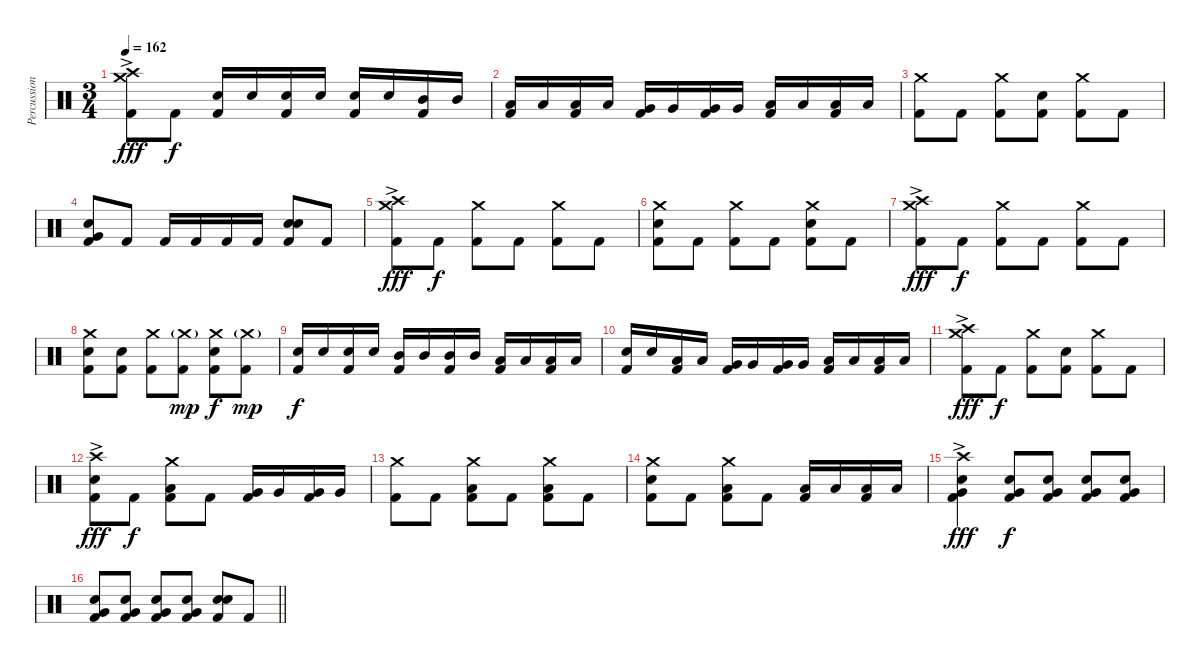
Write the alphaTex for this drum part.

\track ("Percussion" "Percussion") {instrument percussion}
\staff {score}
\articulation defaults
\ts (3 4)
\tempo 162
\clef neutral
\ks c
("Crash high (hit)"{ac} "Crash medium (hit)" "Kick (hit) 2").8{dy fff} "Kick (hit) 2".8{dy f} ("Electric Snare (hit)" "Kick (hit) 2").16 "Electric Snare (hit)".16 ("Electric Snare (hit)" "Kick (hit) 2").16 "Electric Snare (hit)".16 ("Electric Snare (hit)" "Kick (hit) 2").16 "Electric Snare (hit)".16 ("Mid Tom (hit)" "Kick (hit) 2").16 "Mid Tom (hit)".16 |
("Low Tom (hit)" "Kick (hit) 2").16 "Low Tom (hit)".16 ("Low Tom (hit)" "Kick (hit) 2").16 "Low Tom (hit)".16 ("Very Low Tom (hit)" "Kick (hit) 2").16 "Very Low Tom (hit)".16 ("Very Low Tom (hit)" "Kick (hit) 2").16 "Very Low Tom (hit)".16 ("Low Floor Tom (hit)" "Kick (hit) 2").16 "Low Floor Tom (hit)".16 ("Low Floor Tom (hit)" "Kick (hit) 2").16 "Low Floor Tom (hit)".16 |
("Crash medium (hit)" "Kick (hit) 2").8 "Kick (hit) 2".8 ("Crash medium (hit)" "Kick (hit) 2").8 ("Electric Snare (hit)" "Kick (hit) 2").8 ("Crash medium (hit)" "Kick (hit) 2").8 "Kick (hit) 2".8 |
("Electric Snare (hit)" "Very Low Tom (hit)" "Kick (hit) 2").8 "Kick (hit) 2".8 "Kick (hit) 2".16 "Kick (hit) 2".16 "Kick (hit) 2".16 "Kick (hit) 2".16 ("Electric Snare (hit)" "Electric Snare (hit)" "Kick (hit) 2").8{bd 60} "Kick (hit) 2".8 |
("Crash high (hit)"{ac} "Crash medium (hit)" "Kick (hit) 2").8{dy fff} "Kick (hit) 2".8{dy f} ("Crash medium (hit)" "Kick (hit) 2").8 "Kick (hit) 2".8 ("Crash medium (hit)" "Kick (hit) 2").8 "Kick (hit) 2".8 |
("Crash medium (hit)" "Electric Snare (hit)" "Kick (hit) 2").8 "Kick (hit) 2".8 ("Crash medium (hit)" "Kick (hit) 2").8 "Kick (hit) 2".8 ("Crash medium (hit)" "Electric Snare (hit)" "Kick (hit) 2").8 "Kick (hit) 2".8 |
("Crash high (hit)"{ac} "Crash medium (hit)" "Kick (hit) 2").8{dy fff} "Kick (hit) 2".8{dy f} ("Crash medium (hit)" "Kick (hit) 2").8 "Kick (hit) 2".8 ("Crash medium (hit)" "Kick (hit) 2").8 "Kick (hit) 2".8 |
("Crash medium (hit)" "Electric Snare (hit)" "Kick (hit) 2").8 ("Electric Snare (hit)" "Kick (hit) 2").8 ("Crash medium (hit)" "Kick (hit) 2").8 ("Crash medium (hit)"{g} "Kick (hit) 2").8{dy mp} ("Crash medium (hit)" "Electric Snare (hit)" "Kick (hit) 2").8{dy f} ("Crash medium (hit)"{g} "Kick (hit) 2").8{dy mp} |
("Electric Snare (hit)" "Kick (hit) 2").16{dy f} "Electric Snare (hit)".16 ("Electric Snare (hit)" "Kick (hit) 2").16 "Electric Snare (hit)".16 ("Mid Tom (hit)" "Kick (hit) 2").16 "Mid Tom (hit)".16 ("Mid Tom (hit)" "Kick (hit) 2").16 "Mid Tom (hit)".16 ("Low Tom (hit)" "Kick (hit) 2").16 "Low Tom (hit)".16 ("Low Tom (hit)" "Kick (hit) 2").16 "Low Tom (hit)".16 |
("Electric Snare (hit)" "Kick (hit) 2").16 "Electric Snare (hit)".16 ("Low Tom (hit)" "Kick (hit) 2").16 "Low Tom (hit)".16 ("Very Low Tom (hit)" "Kick (hit) 2").16 "Very Low Tom (hit)".16 ("Very Low Tom (hit)" "Kick (hit) 2").16 "Very Low Tom (hit)".16 ("Low Floor Tom (hit)" "Kick (hit) 2").16 "Low Floor Tom (hit)".16 ("Low Floor Tom (hit)" "Kick (hit) 2").16 "Low Floor Tom (hit)".16 |
("Crash high (hit)"{ac} "Crash medium (hit)" "Kick (hit) 2").8{dy fff} "Kick (hit) 2".8{dy f} ("Crash medium (hit)" "Kick (hit) 2").8 ("Electric Snare (hit)" "Kick (hit) 2").8 ("Crash medium (hit)" "Kick (hit) 2").8 "Kick (hit) 2".8 |
("Crash high (hit)"{ac} "Electric Snare (hit)" "Kick (hit) 2").8{dy fff} "Kick (hit) 2".8{dy f} ("Crash medium (hit)" "Low Tom (hit)" "Kick (hit) 2").8 "Kick (hit) 2".8 ("Very Low Tom (hit)" "Kick (hit) 2").16 "Very Low Tom (hit)".16 ("Very Low Tom (hit)" "Kick (hit) 2").16 "Very Low Tom (hit)".16 |
("Crash medium (hit)" "Kick (hit) 2").8 "Kick (hit) 2".8 ("Crash medium (hit)" "Low Floor Tom (hit)" "Kick (hit) 2").8 "Kick (hit) 2".8 ("Crash medium (hit)" "Low Floor Tom (hit)" "Kick (hit) 2").8 "Kick (hit) 2".8 |
("Crash medium (hit)" "Electric Snare (hit)" "Kick (hit) 2").8 "Kick (hit) 2".8 ("Crash medium (hit)" "Low Floor Tom (hit)" "Kick (hit) 2").8 "Kick (hit) 2".8 ("Low Floor Tom (hit)" "Kick (hit) 2").16 "Low Floor Tom (hit)".16 ("Low Floor Tom (hit)" "Kick (hit) 2").16 "Low Floor Tom (hit)".16 |
("Crash high (hit)"{ac} "Electric Snare (hit)" "Very Low Tom (hit)" "Kick (hit) 2").4{dy fff} ("Electric Snare (hit)" "Very Low Tom (hit)" "Kick (hit) 2").8{dy f} ("Electric Snare (hit)" "Very Low Tom (hit)" "Kick (hit) 2").8 ("Electric Snare (hit)" "Very Low Tom (hit)" "Kick (hit) 2").8 ("Electric Snare (hit)" "Very Low Tom (hit)" "Kick (hit) 2").8 |
\barLineRight lightlight
("Electric Snare (hit)" "Very Low Tom (hit)" "Kick (hit) 2").8 ("Electric Snare (hit)" "Very Low Tom (hit)" "Kick (hit) 2").8 ("Electric Snare (hit)" "Very Low Tom (hit)" "Kick (hit) 2").8 ("Electric Snare (hit)" "Very Low Tom (hit)" "Kick (hit) 2").8 ("Electric Snare (hit)" "Electric Snare (hit)" "Kick (hit) 2").8{bd 60} "Kick (hit) 2".8
